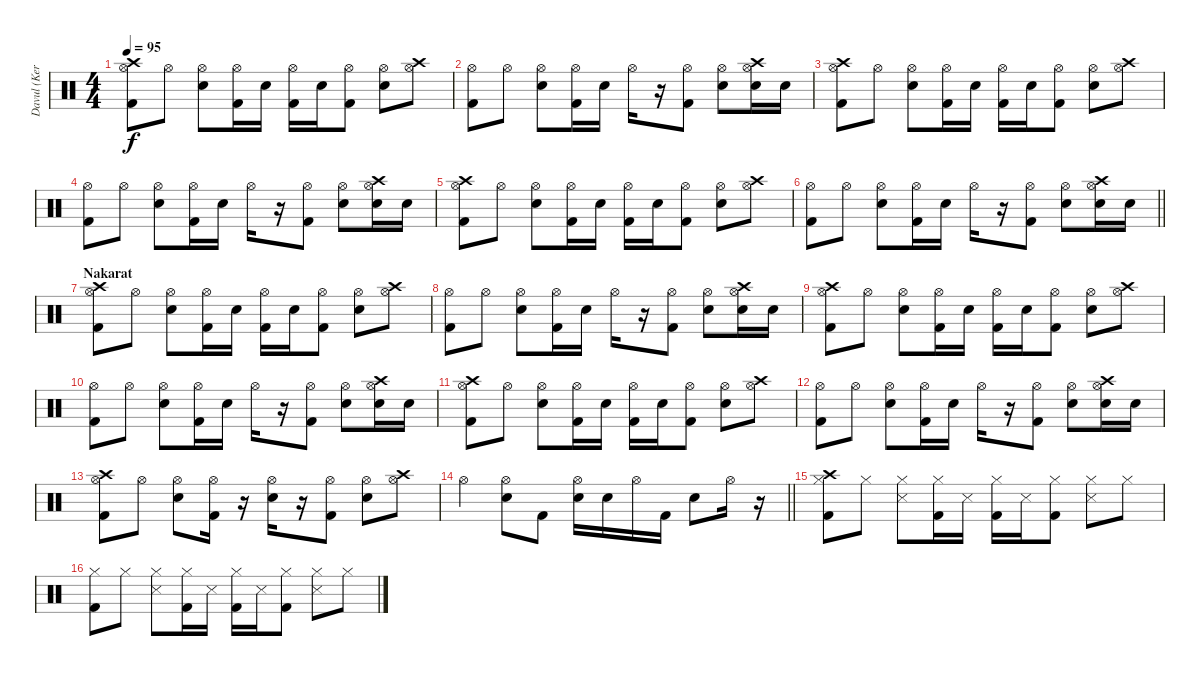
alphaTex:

\track ("Davul (Kerem Kabadayı)" "Davul (Ker") {instrument percussion}
\staff {score}
\articulation defaults
\ts (4 4)
\tempo 95
\clef neutral
\ks c
("Crash high (hit)" "Kick (hit) 2" "Hi-Hat (open)").8{dy f} "Hi-Hat (open)".8 ("Snare (hit) 2" "Hi-Hat (open)").8 ("Kick (hit) 2" "Hi-Hat (open)").16 "Snare (hit) 2".16 ("Kick (hit) 2" "Hi-Hat (open)").16 "Snare (hit) 2".16 ("Kick (hit) 2" "Hi-Hat (open)").8 ("Snare (hit) 2" "Hi-Hat (open)").8 ("Crash high (hit)" "Hi-Hat (open)").8 |
("Kick (hit) 2" "Hi-Hat (open)").8 "Hi-Hat (open)".8 ("Snare (hit) 2" "Hi-Hat (open)").8 ("Kick (hit) 2" "Hi-Hat (open)").16 "Snare (hit) 2".16 "Hi-Hat (open)".16 r.16 ("Kick (hit) 2" "Hi-Hat (open)").8 ("Snare (hit) 2" "Hi-Hat (open)").8 ("Crash high (hit)" "Snare (hit) 2" "Hi-Hat (open)").16 "Snare (hit) 2".16 |
("Crash high (hit)" "Kick (hit) 2" "Hi-Hat (open)").8 "Hi-Hat (open)".8 ("Snare (hit) 2" "Hi-Hat (open)").8 ("Kick (hit) 2" "Hi-Hat (open)").16 "Snare (hit) 2".16 ("Kick (hit) 2" "Hi-Hat (open)").16 "Snare (hit) 2".16 ("Kick (hit) 2" "Hi-Hat (open)").8 ("Snare (hit) 2" "Hi-Hat (open)").8 ("Crash high (hit)" "Hi-Hat (open)").8 |
("Kick (hit) 2" "Hi-Hat (open)").8 "Hi-Hat (open)".8 ("Snare (hit) 2" "Hi-Hat (open)").8 ("Kick (hit) 2" "Hi-Hat (open)").16 "Snare (hit) 2".16 "Hi-Hat (open)".16 r.16 ("Kick (hit) 2" "Hi-Hat (open)").8 ("Snare (hit) 2" "Hi-Hat (open)").8 ("Crash high (hit)" "Snare (hit) 2" "Hi-Hat (open)").16 "Snare (hit) 2".16 |
("Crash high (hit)" "Kick (hit) 2" "Hi-Hat (open)").8 "Hi-Hat (open)".8 ("Snare (hit) 2" "Hi-Hat (open)").8 ("Kick (hit) 2" "Hi-Hat (open)").16 "Snare (hit) 2".16 ("Kick (hit) 2" "Hi-Hat (open)").16 "Snare (hit) 2".16 ("Kick (hit) 2" "Hi-Hat (open)").8 ("Snare (hit) 2" "Hi-Hat (open)").8 ("Crash high (hit)" "Hi-Hat (open)").8 |
\barLineRight lightlight
("Kick (hit) 2" "Hi-Hat (open)").8 "Hi-Hat (open)".8 ("Snare (hit) 2" "Hi-Hat (open)").8 ("Kick (hit) 2" "Hi-Hat (open)").16 "Snare (hit) 2".16 "Hi-Hat (open)".16 r.16 ("Kick (hit) 2" "Hi-Hat (open)").8 ("Snare (hit) 2" "Hi-Hat (open)").8 ("Crash high (hit)" "Snare (hit) 2" "Hi-Hat (open)").16 "Snare (hit) 2".16 |
\section ("" "Nakarat")
("Crash high (hit)" "Kick (hit) 2" "Hi-Hat (open)").8 "Hi-Hat (open)".8 ("Snare (hit) 2" "Hi-Hat (open)").8 ("Kick (hit) 2" "Hi-Hat (open)").16 "Snare (hit) 2".16 ("Kick (hit) 2" "Hi-Hat (open)").16 "Snare (hit) 2".16 ("Kick (hit) 2" "Hi-Hat (open)").8 ("Snare (hit) 2" "Hi-Hat (open)").8 ("Crash high (hit)" "Hi-Hat (open)").8 |
("Kick (hit) 2" "Hi-Hat (open)").8 "Hi-Hat (open)".8 ("Snare (hit) 2" "Hi-Hat (open)").8 ("Kick (hit) 2" "Hi-Hat (open)").16 "Snare (hit) 2".16 "Hi-Hat (open)".16 r.16 ("Kick (hit) 2" "Hi-Hat (open)").8 ("Snare (hit) 2" "Hi-Hat (open)").8 ("Crash high (hit)" "Snare (hit) 2" "Hi-Hat (open)").16 "Snare (hit) 2".16 |
("Crash high (hit)" "Kick (hit) 2" "Hi-Hat (open)").8 "Hi-Hat (open)".8 ("Snare (hit) 2" "Hi-Hat (open)").8 ("Kick (hit) 2" "Hi-Hat (open)").16 "Snare (hit) 2".16 ("Kick (hit) 2" "Hi-Hat (open)").16 "Snare (hit) 2".16 ("Kick (hit) 2" "Hi-Hat (open)").8 ("Snare (hit) 2" "Hi-Hat (open)").8 ("Crash high (hit)" "Hi-Hat (open)").8 |
("Kick (hit) 2" "Hi-Hat (open)").8 "Hi-Hat (open)".8 ("Snare (hit) 2" "Hi-Hat (open)").8 ("Kick (hit) 2" "Hi-Hat (open)").16 "Snare (hit) 2".16 "Hi-Hat (open)".16 r.16 ("Kick (hit) 2" "Hi-Hat (open)").8 ("Snare (hit) 2" "Hi-Hat (open)").8 ("Crash high (hit)" "Snare (hit) 2" "Hi-Hat (open)").16 "Snare (hit) 2".16 |
("Crash high (hit)" "Kick (hit) 2" "Hi-Hat (open)").8 "Hi-Hat (open)".8 ("Snare (hit) 2" "Hi-Hat (open)").8 ("Kick (hit) 2" "Hi-Hat (open)").16 "Snare (hit) 2".16 ("Kick (hit) 2" "Hi-Hat (open)").16 "Snare (hit) 2".16 ("Kick (hit) 2" "Hi-Hat (open)").8 ("Snare (hit) 2" "Hi-Hat (open)").8 ("Crash high (hit)" "Hi-Hat (open)").8 |
("Kick (hit) 2" "Hi-Hat (open)").8 "Hi-Hat (open)".8 ("Snare (hit) 2" "Hi-Hat (open)").8 ("Kick (hit) 2" "Hi-Hat (open)").16 "Snare (hit) 2".16 "Hi-Hat (open)".16 r.16 ("Kick (hit) 2" "Hi-Hat (open)").8 ("Snare (hit) 2" "Hi-Hat (open)").8 ("Crash high (hit)" "Snare (hit) 2" "Hi-Hat (open)").16 "Snare (hit) 2".16 |
("Crash high (hit)" "Kick (hit) 2" "Hi-Hat (open)").8 "Hi-Hat (open)".8 ("Snare (hit) 2" "Hi-Hat (open)").8 ("Kick (hit) 2" "Hi-Hat (open)").16 r.16 ("Snare (hit) 2" "Hi-Hat (open)").16 r.16 ("Kick (hit) 2" "Hi-Hat (open)").8 ("Snare (hit) 2" "Hi-Hat (open)").8 ("Crash high (hit)" "Hi-Hat (open)").8 |
\barLineRight lightlight "Hi-Hat (open)".4
("Snare (hit) 2" "Hi-Hat (open)").8 "Kick (hit) 2".8 ("Snare (hit) 2" "Hi-Hat (open)").16 "Snare (hit) 2".16 "Hi-Hat (open)".16 "Kick (hit) 2".16 "Snare (hit) 2".8 "Hi-Hat (open)".16 r.16 |
("Crash high (hit)" "Kick (hit) 2" "Hi-Hat (closed)").8{volume 11} "Hi-Hat (closed)".8 ("Snare (side stick) 3" "Hi-Hat (closed)").8 ("Kick (hit) 2" "Hi-Hat (closed)").16 "Snare (side stick) 3".16 ("Kick (hit) 2" "Hi-Hat (closed)").16 "Snare (side stick) 3".16 ("Kick (hit) 2" "Hi-Hat (closed)").8 ("Snare (side stick) 3" "Hi-Hat (closed)").8 "Hi-Hat (closed)".8 |
("Kick (hit) 2" "Hi-Hat (closed)").8 "Hi-Hat (closed)".8 ("Snare (side stick) 3" "Hi-Hat (closed)").8 ("Kick (hit) 2" "Hi-Hat (closed)").16 "Snare (side stick) 3".16 ("Kick (hit) 2" "Hi-Hat (closed)").16 "Snare (side stick) 3".16 ("Kick (hit) 2" "Hi-Hat (closed)").8 ("Snare (side stick) 3" "Hi-Hat (closed)").8 "Hi-Hat (closed)".8
